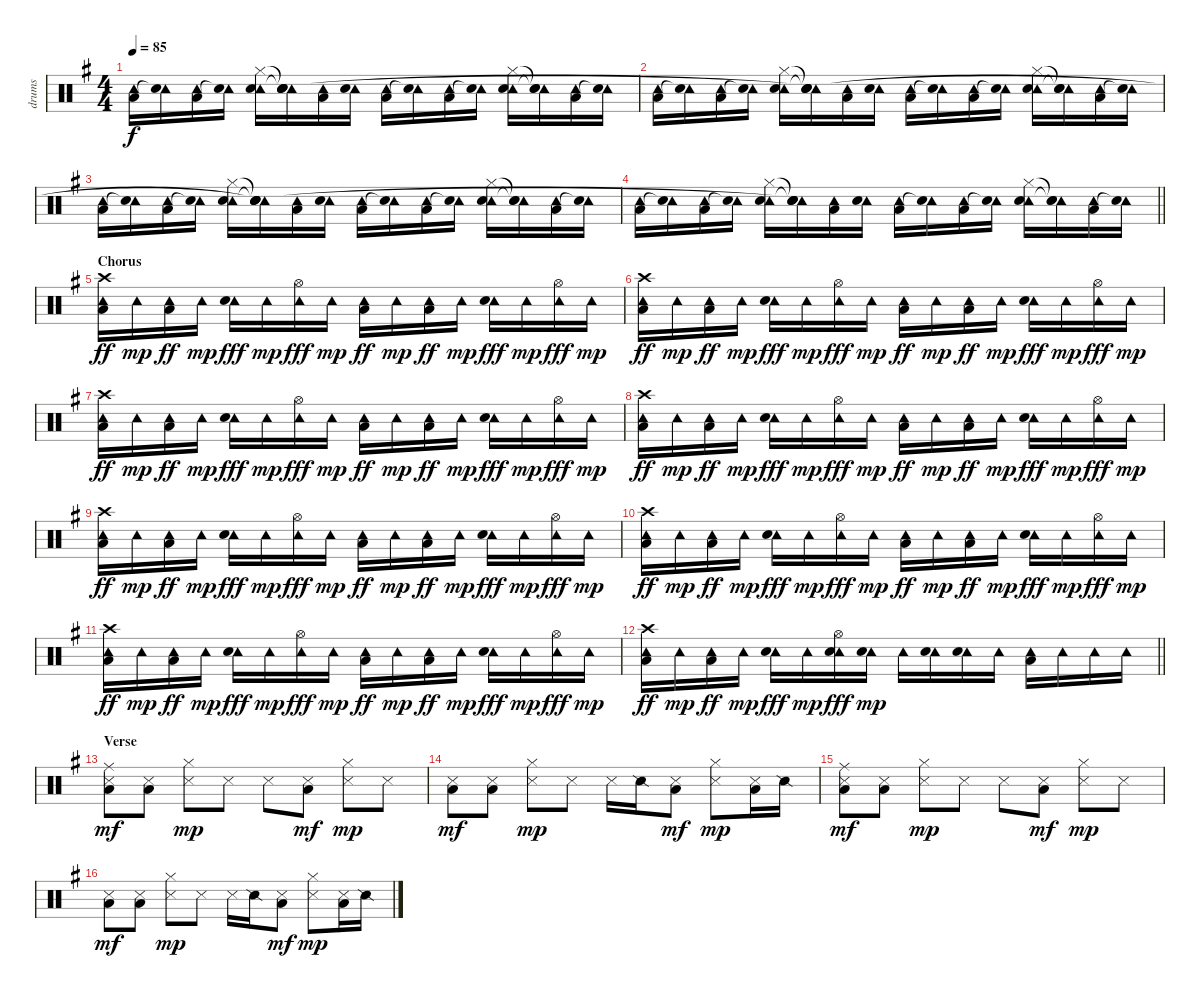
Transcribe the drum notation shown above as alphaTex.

\track ("drums" "drums") {instrument percussion}
\staff {score}
\articulation defaults
\ts (4 4)
\tempo 85
\clef neutral
\ks g
("Tambourine (hit)" "Low Floor Tom (hit)").16{dy f} ("Tambourine (hit)" "Snare (hit)"{t}).16 ("Tambourine (hit)" "Low Floor Tom (hit)").16 ("Tambourine (hit)" "Snare (hit)"{t}).16 ("Tambourine (hit)" "Hi-Hat (closed)" "Snare (hit) 2").16 ("Tambourine (hit)" "Snare (hit)"{t} "Snare (hit)"{t} "Snare (hit)").16 ("Tambourine (hit)" "Low Floor Tom (hit)").16 ("Tambourine (hit)" "Snare (hit) 2").16 ("Tambourine (hit)" "Low Floor Tom (hit)").16 ("Tambourine (hit)" "Snare (hit)"{t}).16 ("Tambourine (hit)" "Low Floor Tom (hit)").16 ("Tambourine (hit)" "Snare (hit)"{t}).16 ("Tambourine (hit)" "Hi-Hat (closed)" "Snare (hit) 2").16 ("Tambourine (hit)" "Snare (hit)"{t} "Snare (hit)"{t}).16 ("Tambourine (hit)" "Low Floor Tom (hit)").16 ("Tambourine (hit)" "Snare (hit)"{t}).16 |
("Tambourine (hit)" "Low Floor Tom (hit)").16 ("Tambourine (hit)" "Snare (hit)"{t}).16 ("Tambourine (hit)" "Low Floor Tom (hit)").16 ("Tambourine (hit)" "Snare (hit)"{t}).16 ("Tambourine (hit)" "Hi-Hat (closed)" "Snare (hit) 2").16 ("Tambourine (hit)" "Snare (hit)"{t} "Snare (hit)"{t} "Snare (hit)"{t}).16 ("Tambourine (hit)" "Low Floor Tom (hit)").16 ("Tambourine (hit)" "Snare (hit) 2").16 ("Tambourine (hit)" "Low Floor Tom (hit)").16 ("Tambourine (hit)" "Snare (hit)"{t}).16 ("Tambourine (hit)" "Low Floor Tom (hit)").16 ("Tambourine (hit)" "Snare (hit)"{t}).16 ("Tambourine (hit)" "Hi-Hat (closed)" "Snare (hit) 2").16 ("Tambourine (hit)" "Snare (hit)"{t} "Snare (hit)"{t}).16 ("Tambourine (hit)" "Low Floor Tom (hit)").16 ("Tambourine (hit)" "Snare (hit)"{t}).16 |
("Tambourine (hit)" "Low Floor Tom (hit)").16 ("Tambourine (hit)" "Snare (hit)"{t}).16 ("Tambourine (hit)" "Low Floor Tom (hit)").16 ("Tambourine (hit)" "Snare (hit)"{t}).16 ("Tambourine (hit)" "Hi-Hat (closed)" "Snare (hit) 2").16 ("Tambourine (hit)" "Snare (hit)"{t} "Snare (hit)"{t} "Snare (hit)"{t}).16 ("Tambourine (hit)" "Low Floor Tom (hit)").16 ("Tambourine (hit)" "Snare (hit) 2").16 ("Tambourine (hit)" "Low Floor Tom (hit)").16 ("Tambourine (hit)" "Snare (hit)"{t}).16 ("Tambourine (hit)" "Low Floor Tom (hit)").16 ("Tambourine (hit)" "Snare (hit)"{t}).16 ("Tambourine (hit)" "Hi-Hat (closed)" "Snare (hit) 2").16 ("Tambourine (hit)" "Snare (hit)"{t} "Snare (hit)"{t}).16 ("Tambourine (hit)" "Low Floor Tom (hit)").16 ("Tambourine (hit)" "Snare (hit)"{t}).16 |
\barLineRight lightlight
("Tambourine (hit)" "Low Floor Tom (hit)").16 ("Tambourine (hit)" "Snare (hit)"{t}).16 ("Tambourine (hit)" "Low Floor Tom (hit)").16 ("Tambourine (hit)" "Snare (hit)"{t}).16 ("Tambourine (hit)" "Hi-Hat (closed)" "Snare (hit) 2").16 ("Tambourine (hit)" "Snare (hit)"{t} "Snare (hit)"{t} "Snare (hit)"{t}).16 ("Tambourine (hit)" "Low Floor Tom (hit)").16 ("Tambourine (hit)" "Snare (hit) 2").16 ("Tambourine (hit)" "Low Floor Tom (hit)").16 ("Tambourine (hit)" "Snare (hit)"{t}).16 ("Tambourine (hit)" "Low Floor Tom (hit)").16 ("Tambourine (hit)" "Snare (hit)"{t}).16 ("Tambourine (hit)" "Hi-Hat (closed)" "Snare (hit) 2").16 ("Tambourine (hit)" "Snare (hit)"{t} "Snare (hit)"{t}).16 ("Tambourine (hit)" "Low Floor Tom (hit)").16 ("Tambourine (hit)" "Snare (hit)"{t}).16 |
\section ("" "Chorus")
("Crash high (hit)" "Tambourine (hit)" "Low Floor Tom (hit)").16{dy ff} "Tambourine (hit)".16{dy mp} ("Tambourine (hit)" "Low Floor Tom (hit)").16{dy ff} "Tambourine (hit)".16{dy mp} ("Tambourine (hit)" "Electric Snare (hit)").16{dy fff} "Tambourine (hit)".16{dy mp} ("Tambourine (hit)" "Hi-Hat (open)").16{dy fff} "Tambourine (hit)".16{dy mp} ("Tambourine (hit)" "Low Floor Tom (hit)").16{dy ff} "Tambourine (hit)".16{dy mp} ("Tambourine (hit)" "Low Floor Tom (hit)").16{dy ff} "Tambourine (hit)".16{dy mp} ("Tambourine (hit)" "Electric Snare (hit)").16{dy fff} "Tambourine (hit)".16{dy mp} ("Tambourine (hit)" "Hi-Hat (open)").16{dy fff} "Tambourine (hit)".16{dy mp} |
("Crash high (hit)" "Tambourine (hit)" "Low Floor Tom (hit)").16{dy ff} "Tambourine (hit)".16{dy mp} ("Tambourine (hit)" "Low Floor Tom (hit)").16{dy ff} "Tambourine (hit)".16{dy mp} ("Tambourine (hit)" "Electric Snare (hit)").16{dy fff} "Tambourine (hit)".16{dy mp} ("Tambourine (hit)" "Hi-Hat (open)").16{dy fff} "Tambourine (hit)".16{dy mp} ("Tambourine (hit)" "Low Floor Tom (hit)").16{dy ff} "Tambourine (hit)".16{dy mp} ("Tambourine (hit)" "Low Floor Tom (hit)").16{dy ff} "Tambourine (hit)".16{dy mp} ("Tambourine (hit)" "Electric Snare (hit)").16{dy fff} "Tambourine (hit)".16{dy mp} ("Tambourine (hit)" "Hi-Hat (open)").16{dy fff} "Tambourine (hit)".16{dy mp} |
("Crash high (hit)" "Tambourine (hit)" "Low Floor Tom (hit)").16{dy ff} "Tambourine (hit)".16{dy mp} ("Tambourine (hit)" "Low Floor Tom (hit)").16{dy ff} "Tambourine (hit)".16{dy mp} ("Tambourine (hit)" "Electric Snare (hit)").16{dy fff} "Tambourine (hit)".16{dy mp} ("Tambourine (hit)" "Hi-Hat (open)").16{dy fff} "Tambourine (hit)".16{dy mp} ("Tambourine (hit)" "Low Floor Tom (hit)").16{dy ff} "Tambourine (hit)".16{dy mp} ("Tambourine (hit)" "Low Floor Tom (hit)").16{dy ff} "Tambourine (hit)".16{dy mp} ("Tambourine (hit)" "Electric Snare (hit)").16{dy fff} "Tambourine (hit)".16{dy mp} ("Tambourine (hit)" "Hi-Hat (open)").16{dy fff} "Tambourine (hit)".16{dy mp} |
("Crash high (hit)" "Tambourine (hit)" "Low Floor Tom (hit)").16{dy ff} "Tambourine (hit)".16{dy mp} ("Tambourine (hit)" "Low Floor Tom (hit)").16{dy ff} "Tambourine (hit)".16{dy mp} ("Tambourine (hit)" "Electric Snare (hit)").16{dy fff} "Tambourine (hit)".16{dy mp} ("Tambourine (hit)" "Hi-Hat (open)").16{dy fff} "Tambourine (hit)".16{dy mp} ("Tambourine (hit)" "Low Floor Tom (hit)").16{dy ff} "Tambourine (hit)".16{dy mp} ("Tambourine (hit)" "Low Floor Tom (hit)").16{dy ff} "Tambourine (hit)".16{dy mp} ("Tambourine (hit)" "Electric Snare (hit)").16{dy fff} "Tambourine (hit)".16{dy mp} ("Tambourine (hit)" "Hi-Hat (open)").16{dy fff} "Tambourine (hit)".16{dy mp} |
("Crash high (hit)" "Tambourine (hit)" "Low Floor Tom (hit)").16{dy ff} "Tambourine (hit)".16{dy mp} ("Tambourine (hit)" "Low Floor Tom (hit)").16{dy ff} "Tambourine (hit)".16{dy mp} ("Tambourine (hit)" "Electric Snare (hit)").16{dy fff} "Tambourine (hit)".16{dy mp} ("Tambourine (hit)" "Hi-Hat (open)").16{dy fff} "Tambourine (hit)".16{dy mp} ("Tambourine (hit)" "Low Floor Tom (hit)").16{dy ff} "Tambourine (hit)".16{dy mp} ("Tambourine (hit)" "Low Floor Tom (hit)").16{dy ff} "Tambourine (hit)".16{dy mp} ("Tambourine (hit)" "Electric Snare (hit)").16{dy fff} "Tambourine (hit)".16{dy mp} ("Tambourine (hit)" "Hi-Hat (open)").16{dy fff} "Tambourine (hit)".16{dy mp} |
("Crash high (hit)" "Tambourine (hit)" "Low Floor Tom (hit)").16{dy ff} "Tambourine (hit)".16{dy mp} ("Tambourine (hit)" "Low Floor Tom (hit)").16{dy ff} "Tambourine (hit)".16{dy mp} ("Tambourine (hit)" "Electric Snare (hit)").16{dy fff} "Tambourine (hit)".16{dy mp} ("Tambourine (hit)" "Hi-Hat (open)").16{dy fff} "Tambourine (hit)".16{dy mp} ("Tambourine (hit)" "Low Floor Tom (hit)").16{dy ff} "Tambourine (hit)".16{dy mp} ("Tambourine (hit)" "Low Floor Tom (hit)").16{dy ff} "Tambourine (hit)".16{dy mp} ("Tambourine (hit)" "Electric Snare (hit)").16{dy fff} "Tambourine (hit)".16{dy mp} ("Tambourine (hit)" "Hi-Hat (open)").16{dy fff} "Tambourine (hit)".16{dy mp} |
("Crash high (hit)" "Tambourine (hit)" "Low Floor Tom (hit)").16{dy ff} "Tambourine (hit)".16{dy mp} ("Tambourine (hit)" "Low Floor Tom (hit)").16{dy ff} "Tambourine (hit)".16{dy mp} ("Tambourine (hit)" "Electric Snare (hit)").16{dy fff} "Tambourine (hit)".16{dy mp} ("Tambourine (hit)" "Hi-Hat (open)").16{dy fff} "Tambourine (hit)".16{dy mp} ("Tambourine (hit)" "Low Floor Tom (hit)").16{dy ff} "Tambourine (hit)".16{dy mp} ("Tambourine (hit)" "Low Floor Tom (hit)").16{dy ff} "Tambourine (hit)".16{dy mp} ("Tambourine (hit)" "Electric Snare (hit)").16{dy fff} "Tambourine (hit)".16{dy mp} ("Tambourine (hit)" "Hi-Hat (open)").16{dy fff} "Tambourine (hit)".16{dy mp} |
\barLineRight lightlight
("Crash high (hit)" "Tambourine (hit)" "Low Floor Tom (hit)").16{dy ff} "Tambourine (hit)".16{dy mp} ("Tambourine (hit)" "Low Floor Tom (hit)").16{dy ff} "Tambourine (hit)".16{dy mp} ("Tambourine (hit)" "Electric Snare (hit)").16{dy fff} "Tambourine (hit)".16{dy mp} ("Tambourine (hit)" "Hi-Hat (open)" "Electric Snare (hit)").16{dy fff} ("Tambourine (hit)" "Electric Snare (hit)").16{dy mp} "Tambourine (hit)".16 ("Tambourine (hit)" "Electric Snare (hit)").16 ("Tambourine (hit)" "Electric Snare (hit)").16 "Tambourine (hit)".16 ("Tambourine (hit)" "Low Floor Tom (hit)").16 "Tambourine (hit)".16 "Tambourine (hit)".16 "Tambourine (hit)".16 |
\section ("" "Verse")
("Ride (middle)" "Snare (side stick) 3" "Low Floor Tom (hit)").8{dy mf} ("Snare (side stick) 3" "Low Floor Tom (hit)").8 ("Hi-Hat (closed)" "Snare (side stick) 3").8{dy mp} "Snare (side stick) 3".8 "Snare (side stick) 3".8 ("Snare (side stick) 3" "Low Floor Tom (hit)").8{dy mf} ("Hi-Hat (closed)" "Snare (side stick) 3").8{dy mp} "Snare (side stick) 3".8 |
("Snare (side stick) 3" "Low Floor Tom (hit)").8{dy mf} ("Snare (side stick) 3" "Low Floor Tom (hit)").8 ("Hi-Hat (closed)" "Snare (side stick) 3").8{dy mp} "Snare (side stick) 3".8 "Snare (side stick) 3".16 "Snare (side stick) 2".16 ("Snare (side stick) 3" "Low Floor Tom (hit)").8{dy mf} ("Hi-Hat (closed)" "Snare (side stick) 3").8{dy mp} ("Snare (side stick) 3" "Low Floor Tom (hit)").16 "Snare (side stick) 2".16 |
("Ride (middle)" "Snare (side stick) 3" "Low Floor Tom (hit)").8{dy mf} ("Snare (side stick) 3" "Low Floor Tom (hit)").8 ("Hi-Hat (closed)" "Snare (side stick) 3").8{dy mp} "Snare (side stick) 3".8 "Snare (side stick) 3".8 ("Snare (side stick) 3" "Low Floor Tom (hit)").8{dy mf} ("Hi-Hat (closed)" "Snare (side stick) 3").8{dy mp} "Snare (side stick) 3".8 |
("Snare (side stick) 3" "Low Floor Tom (hit)").8{dy mf} ("Snare (side stick) 3" "Low Floor Tom (hit)").8 ("Hi-Hat (closed)" "Snare (side stick) 3").8{dy mp} "Snare (side stick) 3".8 "Snare (side stick) 3".16 "Snare (side stick) 2".16 ("Snare (side stick) 3" "Low Floor Tom (hit)").8{dy mf} ("Hi-Hat (closed)" "Snare (side stick) 3").8{dy mp} ("Snare (side stick) 3" "Low Floor Tom (hit)").16 "Snare (side stick) 2".16
